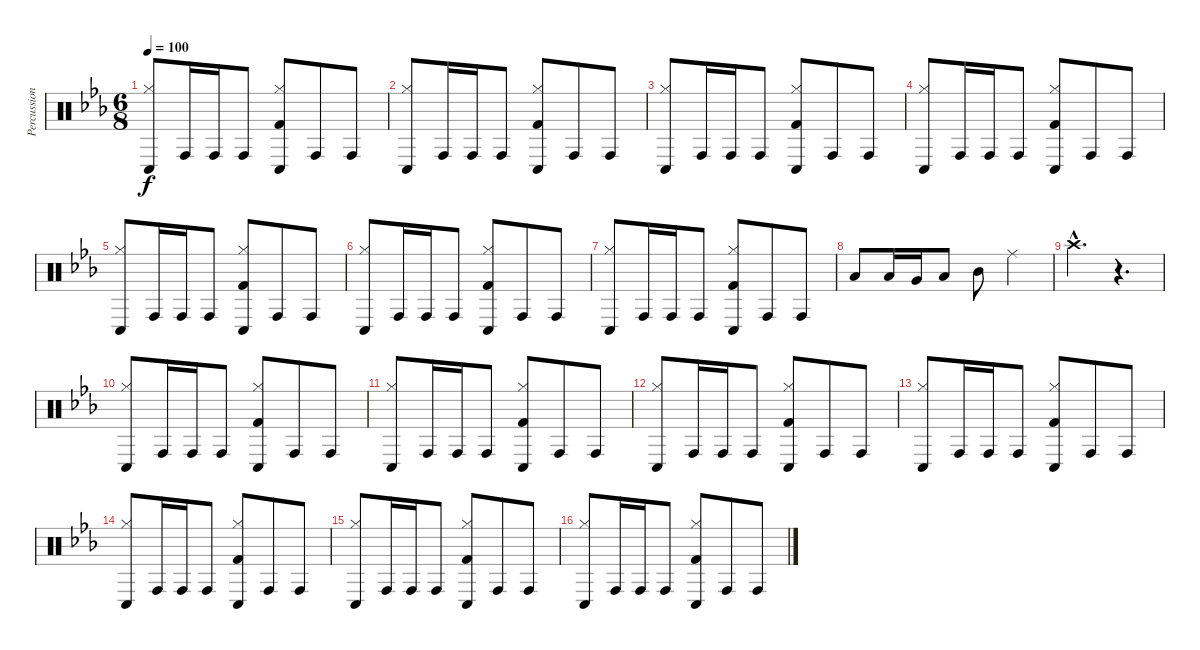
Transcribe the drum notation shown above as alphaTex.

\track ("Percussion" "Percussion") {instrument percussion}
\staff {score}
\articulation defaults
\ts (6 8)
\tempo 100
\clef neutral
\ks eb
("Hi-Hat (closed)" "Conga low (hit)").8{dy f} "Conga high (hit)".16 "Conga high (hit)".16 "Conga high (hit)".8 ("Hi-Hat (closed)" "Conga low (hit)" "Kick (hit) 2").8 "Conga high (hit)".8 "Conga high (hit)".8 |
("Hi-Hat (closed)" "Conga low (hit)").8 "Conga high (hit)".16 "Conga high (hit)".16 "Conga high (hit)".8 ("Hi-Hat (closed)" "Conga low (hit)" "Kick (hit) 2").8 "Conga high (hit)".8 "Conga high (hit)".8 |
("Hi-Hat (closed)" "Conga low (hit)").8 "Conga high (hit)".16 "Conga high (hit)".16 "Conga high (hit)".8 ("Hi-Hat (closed)" "Conga low (hit)" "Kick (hit) 2").8 "Conga high (hit)".8 "Conga high (hit)".8 |
("Hi-Hat (closed)" "Conga low (hit)").8 "Conga high (hit)".16 "Conga high (hit)".16 "Conga high (hit)".8 ("Hi-Hat (closed)" "Conga low (hit)" "Kick (hit) 2").8 "Conga high (hit)".8 "Conga high (hit)".8 |
("Hi-Hat (closed)" "Conga low (hit)").8 "Conga high (hit)".16 "Conga high (hit)".16 "Conga high (hit)".8 ("Hi-Hat (closed)" "Conga low (hit)" "Kick (hit) 2").8 "Conga high (hit)".8 "Conga high (hit)".8 |
("Hi-Hat (closed)" "Conga low (hit)").8 "Conga high (hit)".16 "Conga high (hit)".16 "Conga high (hit)".8 ("Hi-Hat (closed)" "Conga low (hit)" "Kick (hit) 2").8 "Conga high (hit)".8 "Conga high (hit)".8 |
("Hi-Hat (closed)" "Conga low (hit)").8 "Conga high (hit)".16 "Conga high (hit)".16 "Conga high (hit)".8 ("Hi-Hat (closed)" "Conga low (hit)" "Kick (hit) 2").8 "Conga high (hit)".8 "Conga high (hit)".8 |
"Low Floor Tom (hit)".8 "Low Floor Tom (hit)".16 "Very Low Tom (hit)".16 "Low Tom (hit)".8 "Mid Tom (hit)".8 "Ride (middle)".4 |
"Crash high (hit)"{hac}.4{d} r.4{d} |
("Hi-Hat (closed)" "Conga low (hit)").8 "Conga high (hit)".16 "Conga high (hit)".16 "Conga high (hit)".8 ("Hi-Hat (closed)" "Conga low (hit)" "Kick (hit) 2").8 "Conga high (hit)".8 "Conga high (hit)".8 |
("Hi-Hat (closed)" "Conga low (hit)").8 "Conga high (hit)".16 "Conga high (hit)".16 "Conga high (hit)".8 ("Hi-Hat (closed)" "Conga low (hit)" "Kick (hit) 2").8 "Conga high (hit)".8 "Conga high (hit)".8 |
("Hi-Hat (closed)" "Conga low (hit)").8 "Conga high (hit)".16 "Conga high (hit)".16 "Conga high (hit)".8 ("Hi-Hat (closed)" "Conga low (hit)" "Kick (hit) 2").8 "Conga high (hit)".8 "Conga high (hit)".8 |
("Hi-Hat (closed)" "Conga low (hit)").8 "Conga high (hit)".16 "Conga high (hit)".16 "Conga high (hit)".8 ("Hi-Hat (closed)" "Conga low (hit)" "Kick (hit) 2").8 "Conga high (hit)".8 "Conga high (hit)".8 |
("Hi-Hat (closed)" "Conga low (hit)").8 "Conga high (hit)".16 "Conga high (hit)".16 "Conga high (hit)".8 ("Hi-Hat (closed)" "Conga low (hit)" "Kick (hit) 2").8 "Conga high (hit)".8 "Conga high (hit)".8 |
("Hi-Hat (closed)" "Conga low (hit)").8 "Conga high (hit)".16 "Conga high (hit)".16 "Conga high (hit)".8 ("Hi-Hat (closed)" "Conga low (hit)" "Kick (hit) 2").8 "Conga high (hit)".8 "Conga high (hit)".8 |
("Hi-Hat (closed)" "Conga low (hit)").8 "Conga high (hit)".16 "Conga high (hit)".16 "Conga high (hit)".8 ("Hi-Hat (closed)" "Conga low (hit)" "Kick (hit) 2").8 "Conga high (hit)".8 "Conga high (hit)".8
